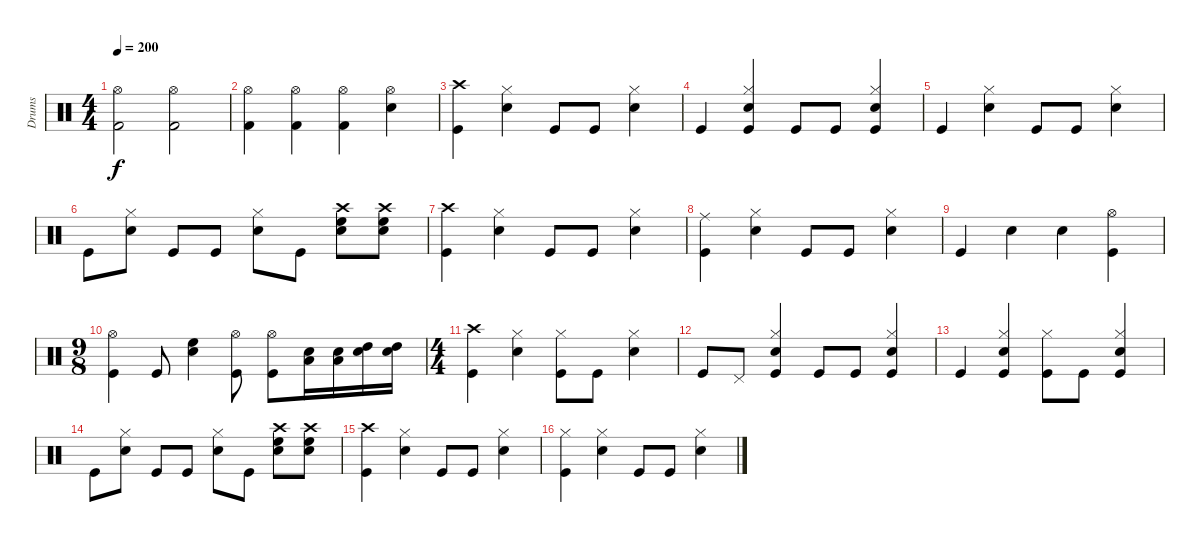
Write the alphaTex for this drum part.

\track ("Drums" "Drums") {instrument percussion}
\staff {score}
\articulation defaults
\ts (4 4)
\tempo 200
\clef neutral
\ks c
("Hi-Hat (open)" "Kick (hit) 2").2{dy f} ("Hi-Hat (open)" "Kick (hit) 2").2 |
("Hi-Hat (open)" "Kick (hit) 2").4 ("Hi-Hat (open)" "Kick (hit) 2").4 ("Hi-Hat (open)" "Kick (hit) 2").4 ("Hi-Hat (open)" "Electric Snare (hit)").4 |
("Crash high (hit)" "Kick (hit)").4 ("Hi-Hat (closed)" "Snare (hit) 2").4 "Kick (hit)".8 "Kick (hit)".8 ("Hi-Hat (closed)" "Snare (hit) 2").4 |
"Kick (hit)".4 ("Hi-Hat (closed)" "Snare (hit) 2" "Kick (hit)").4 "Kick (hit)".8 "Kick (hit)".8 ("Hi-Hat (closed)" "Snare (hit) 2" "Kick (hit)").4 |
"Kick (hit)".4 ("Hi-Hat (closed)" "Snare (hit) 2").4 "Kick (hit)".8 "Kick (hit)".8 ("Hi-Hat (closed)" "Snare (hit) 2").4 |
"Kick (hit)".8 ("Hi-Hat (closed)" "Snare (hit) 2").8 "Kick (hit)".8 "Kick (hit)".8 ("Hi-Hat (closed)" "Snare (hit) 2").8 "Kick (hit)".8 ("Crash high (hit)" "Snare (hit) 2" "High Floor Tom (hit)").8 ("Crash high (hit)" "Snare (hit) 2" "High Floor Tom (hit)").8 |
("Crash high (hit)" "Kick (hit)").4 ("Hi-Hat (closed)" "Snare (hit) 2").4 "Kick (hit)".8 "Kick (hit)".8 ("Hi-Hat (closed)" "Snare (hit) 2").4 |
("Ride (middle)" "Kick (hit)").4 ("Hi-Hat (closed)" "Snare (hit) 2").4 "Kick (hit)".8 "Kick (hit)".8 ("Hi-Hat (closed)" "Snare (hit) 2").4 |
"Kick (hit)".4 "Snare (hit) 2".4 "Snare (hit) 2".4 ("Hi-Hat (open)" "Kick (hit)").4 |
\ts (9 8)
("Hi-Hat (open)" "Kick (hit)").4 "Kick (hit)".8 ("Snare (hit) 2" "High Floor Tom (hit)").4 ("Hi-Hat (open)" "Kick (hit)").8 ("Hi-Hat (open)" "Kick (hit)").8 ("Snare (hit) 2" "Low Tom (hit)").16 ("Snare (hit) 2" "Low Tom (hit)").16 ("Snare (hit) 2" "High Tom (hit)").16 ("Snare (hit) 2" "High Tom (hit)").16 |
\ts (4 4)
("Crash high (hit)" "Kick (hit)").4 ("Hi-Hat (closed)" "Snare (hit) 2").4 ("Hi-Hat (closed)" "Kick (hit)").8 "Kick (hit)".8 ("Hi-Hat (closed)" "Snare (hit) 2").4 |
"Kick (hit)".8 "Pedal Hi-Hat (hit)".8 ("Hi-Hat (closed)" "Snare (hit) 2" "Kick (hit)").4 "Kick (hit)".8 "Kick (hit)".8 ("Hi-Hat (closed)" "Snare (hit) 2" "Kick (hit)").4 |
"Kick (hit)".4 ("Hi-Hat (closed)" "Snare (hit) 2" "Kick (hit)").4 ("Hi-Hat (closed)" "Kick (hit)").8 "Kick (hit)".8 ("Hi-Hat (closed)" "Snare (hit) 2" "Kick (hit)").4 |
"Kick (hit)".8 ("Hi-Hat (closed)" "Snare (hit) 2").8 "Kick (hit)".8 "Kick (hit)".8 ("Hi-Hat (closed)" "Snare (hit) 2").8 "Kick (hit)".8 ("Crash high (hit)" "Snare (hit) 2" "High Floor Tom (hit)").8 ("Crash high (hit)" "Snare (hit) 2" "High Floor Tom (hit)").8 |
("Crash high (hit)" "Kick (hit)").4 ("Hi-Hat (closed)" "Snare (hit) 2").4 "Kick (hit)".8 "Kick (hit)".8 ("Hi-Hat (closed)" "Snare (hit) 2").4 |
("Hi-Hat (closed)" "Kick (hit)").4 ("Hi-Hat (closed)" "Snare (hit) 2").4 "Kick (hit)".8 "Kick (hit)".8 ("Hi-Hat (closed)" "Snare (hit) 2").4
